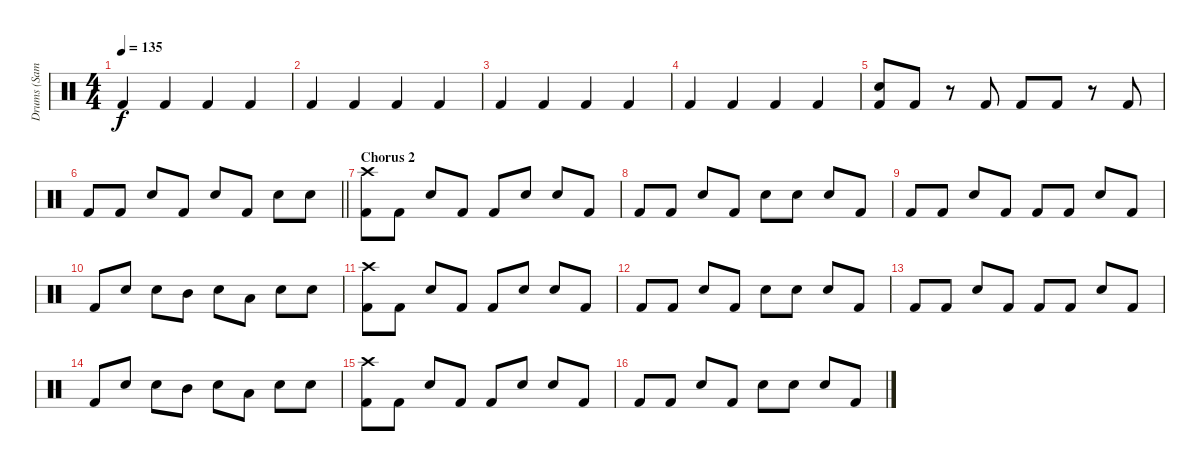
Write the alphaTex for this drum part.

\track ("Drums (Sam Fogarino)" "Drums (Sam") {instrument percussion}
\staff {score}
\articulation defaults
\ts (4 4)
\tempo 135
\clef neutral
\ks c "Kick (hit) 2".4{dy f} "Kick (hit) 2".4 "Kick (hit) 2".4 "Kick (hit) 2".4
|
"Kick (hit) 2".4 "Kick (hit) 2".4 "Kick (hit) 2".4 "Kick (hit) 2".4 |
"Kick (hit) 2".4 "Kick (hit) 2".4 "Kick (hit) 2".4 "Kick (hit) 2".4 |
"Kick (hit) 2".4 "Kick (hit) 2".4 "Kick (hit) 2".4 "Kick (hit) 2".4 |
("Snare (hit) 2" "Kick (hit) 2").8 "Kick (hit) 2".8 r.8 "Kick (hit) 2".8 "Kick (hit) 2".8 "Kick (hit) 2".8 r.8 "Kick (hit) 2".8 |
\barLineRight lightlight "Kick (hit) 2".8 "Kick (hit) 2".8 "Snare (hit) 2".8 "Kick (hit) 2".8 "Snare (hit) 2".8 "Kick (hit) 2".8 "Snare (hit) 2".8 "Snare (hit) 2".8
|
\section ("" "Chorus 2")
("Crash high (hit)" "Kick (hit) 2").8 "Kick (hit) 2".8 "Snare (hit) 2".8 "Kick (hit) 2".8 "Kick (hit) 2".8 "Snare (hit) 2".8 "Snare (hit) 2".8 "Kick (hit) 2".8 |
"Kick (hit) 2".8 "Kick (hit) 2".8 "Snare (hit) 2".8 "Kick (hit) 2".8 "Snare (hit) 2".8 "Snare (hit) 2".8 "Snare (hit) 2".8 "Kick (hit) 2".8 |
"Kick (hit) 2".8 "Kick (hit) 2".8 "Snare (hit) 2".8 "Kick (hit) 2".8 "Kick (hit) 2".8 "Kick (hit) 2".8 "Snare (hit) 2".8 "Kick (hit) 2".8 |
"Kick (hit) 2".8 "Snare (hit) 2".8 "Snare (hit) 2".8 "Mid Tom (hit)".8 "Snare (hit) 2".8 "Low Tom (hit)".8 "Snare (hit) 2".8 "Snare (hit) 2".8 |
("Crash high (hit)" "Kick (hit) 2").8 "Kick (hit) 2".8 "Snare (hit) 2".8 "Kick (hit) 2".8 "Kick (hit) 2".8 "Snare (hit) 2".8 "Snare (hit) 2".8 "Kick (hit) 2".8 |
"Kick (hit) 2".8 "Kick (hit) 2".8 "Snare (hit) 2".8 "Kick (hit) 2".8 "Snare (hit) 2".8 "Snare (hit) 2".8 "Snare (hit) 2".8 "Kick (hit) 2".8 |
"Kick (hit) 2".8 "Kick (hit) 2".8 "Snare (hit) 2".8 "Kick (hit) 2".8 "Kick (hit) 2".8 "Kick (hit) 2".8 "Snare (hit) 2".8 "Kick (hit) 2".8 |
"Kick (hit) 2".8 "Snare (hit) 2".8 "Snare (hit) 2".8 "Mid Tom (hit)".8 "Snare (hit) 2".8 "Low Tom (hit)".8 "Snare (hit) 2".8 "Snare (hit) 2".8 |
("Crash high (hit)" "Kick (hit) 2").8 "Kick (hit) 2".8 "Snare (hit) 2".8 "Kick (hit) 2".8 "Kick (hit) 2".8 "Snare (hit) 2".8 "Snare (hit) 2".8 "Kick (hit) 2".8 |
"Kick (hit) 2".8 "Kick (hit) 2".8 "Snare (hit) 2".8 "Kick (hit) 2".8 "Snare (hit) 2".8 "Snare (hit) 2".8 "Snare (hit) 2".8 "Kick (hit) 2".8
